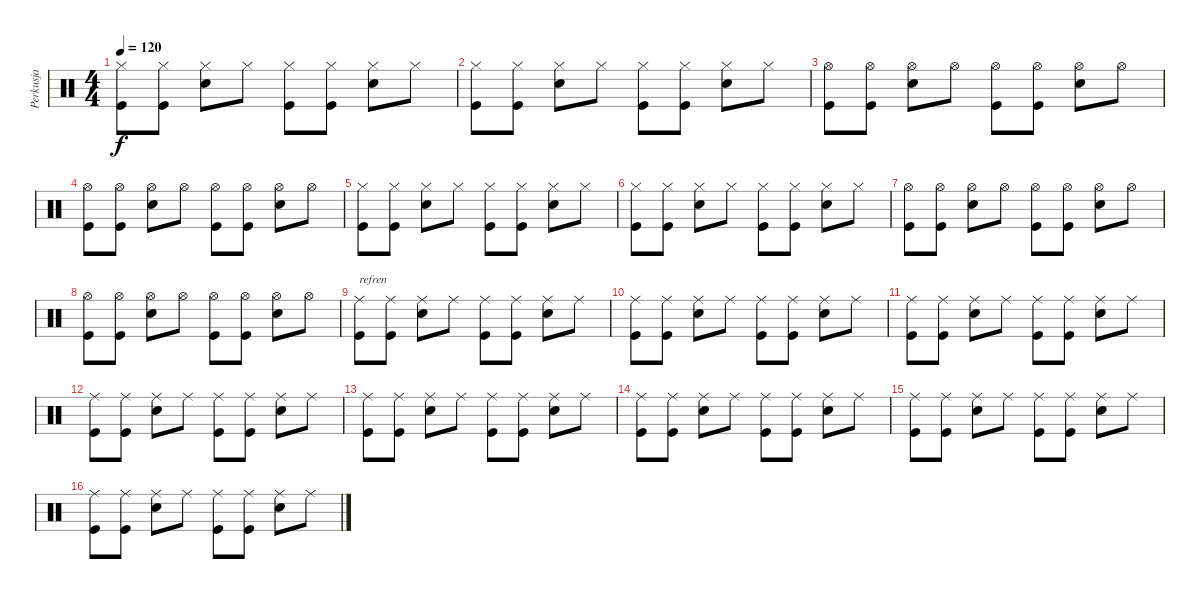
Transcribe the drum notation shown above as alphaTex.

\track ("Perkusja" "Perkusja") {instrument percussion}
\staff {score}
\articulation defaults
\ts (4 4)
\tempo 120
\clef neutral
\ks c
("Hi-Hat (closed)" "Kick (hit)").8{dy f} ("Hi-Hat (closed)" "Kick (hit)").8 ("Hi-Hat (closed)" "Electric Snare (hit)").8 "Hi-Hat (closed)".8 ("Hi-Hat (closed)" "Kick (hit)").8 ("Hi-Hat (closed)" "Kick (hit)").8 ("Hi-Hat (closed)" "Electric Snare (hit)").8 "Hi-Hat (closed)".8 |
("Hi-Hat (closed)" "Kick (hit)").8 ("Hi-Hat (closed)" "Kick (hit)").8 ("Hi-Hat (closed)" "Electric Snare (hit)").8 "Hi-Hat (closed)".8 ("Hi-Hat (closed)" "Kick (hit)").8 ("Hi-Hat (closed)" "Kick (hit)").8 ("Hi-Hat (closed)" "Electric Snare (hit)").8 "Hi-Hat (closed)".8 |
("Hi-Hat (open)" "Kick (hit)").8 ("Hi-Hat (open)" "Kick (hit)").8 ("Hi-Hat (open)" "Electric Snare (hit)").8 "Hi-Hat (open)".8 ("Hi-Hat (open)" "Kick (hit)").8 ("Hi-Hat (open)" "Kick (hit)").8 ("Hi-Hat (open)" "Electric Snare (hit)").8 "Hi-Hat (open)".8 |
("Hi-Hat (open)" "Kick (hit)").8 ("Hi-Hat (open)" "Kick (hit)").8 ("Hi-Hat (open)" "Electric Snare (hit)").8 "Hi-Hat (open)".8 ("Hi-Hat (open)" "Kick (hit)").8 ("Hi-Hat (open)" "Kick (hit)").8 ("Hi-Hat (open)" "Electric Snare (hit)").8 "Hi-Hat (open)".8 |
("Hi-Hat (closed)" "Kick (hit)").8 ("Hi-Hat (closed)" "Kick (hit)").8 ("Hi-Hat (closed)" "Electric Snare (hit)").8 "Hi-Hat (closed)".8 ("Hi-Hat (closed)" "Kick (hit)").8 ("Hi-Hat (closed)" "Kick (hit)").8 ("Hi-Hat (closed)" "Electric Snare (hit)").8 "Hi-Hat (closed)".8 |
("Hi-Hat (closed)" "Kick (hit)").8 ("Hi-Hat (closed)" "Kick (hit)").8 ("Hi-Hat (closed)" "Electric Snare (hit)").8 "Hi-Hat (closed)".8 ("Hi-Hat (closed)" "Kick (hit)").8 ("Hi-Hat (closed)" "Kick (hit)").8 ("Hi-Hat (closed)" "Electric Snare (hit)").8 "Hi-Hat (closed)".8 |
("Hi-Hat (open)" "Kick (hit)").8 ("Hi-Hat (open)" "Kick (hit)").8 ("Hi-Hat (open)" "Electric Snare (hit)").8 "Hi-Hat (open)".8 ("Hi-Hat (open)" "Kick (hit)").8 ("Hi-Hat (open)" "Kick (hit)").8 ("Hi-Hat (open)" "Electric Snare (hit)").8 "Hi-Hat (open)".8 |
("Hi-Hat (open)" "Kick (hit)").8 ("Hi-Hat (open)" "Kick (hit)").8 ("Hi-Hat (open)" "Electric Snare (hit)").8 "Hi-Hat (open)".8 ("Hi-Hat (open)" "Kick (hit)").8 ("Hi-Hat (open)" "Kick (hit)").8 ("Hi-Hat (open)" "Electric Snare (hit)").8 "Hi-Hat (open)".8 |
("Ride (middle)" "Kick (hit)").8{txt "refren"} ("Ride (middle)" "Kick (hit)").8 ("Ride (middle)" "Electric Snare (hit)").8 "Ride (middle)".8 ("Ride (middle)" "Kick (hit)").8 ("Ride (middle)" "Kick (hit)").8 ("Ride (middle)" "Electric Snare (hit)").8 "Ride (middle)".8 |
("Ride (middle)" "Kick (hit)").8 ("Ride (middle)" "Kick (hit)").8 ("Ride (middle)" "Electric Snare (hit)").8 "Ride (middle)".8 ("Ride (middle)" "Kick (hit)").8 ("Ride (middle)" "Kick (hit)").8 ("Ride (middle)" "Electric Snare (hit)").8 "Ride (middle)".8 |
("Ride (middle)" "Kick (hit)").8 ("Ride (middle)" "Kick (hit)").8 ("Ride (middle)" "Electric Snare (hit)").8 "Ride (middle)".8 ("Ride (middle)" "Kick (hit)").8 ("Ride (middle)" "Kick (hit)").8 ("Ride (middle)" "Electric Snare (hit)").8 "Ride (middle)".8 |
("Ride (middle)" "Kick (hit)").8 ("Ride (middle)" "Kick (hit)").8 ("Ride (middle)" "Electric Snare (hit)").8 "Ride (middle)".8 ("Ride (middle)" "Kick (hit)").8 ("Ride (middle)" "Kick (hit)").8 ("Ride (middle)" "Electric Snare (hit)").8 "Ride (middle)".8 |
("Ride (middle)" "Kick (hit)").8 ("Ride (middle)" "Kick (hit)").8 ("Ride (middle)" "Electric Snare (hit)").8 "Ride (middle)".8 ("Ride (middle)" "Kick (hit)").8 ("Ride (middle)" "Kick (hit)").8 ("Ride (middle)" "Electric Snare (hit)").8 "Ride (middle)".8 |
("Ride (middle)" "Kick (hit)").8 ("Ride (middle)" "Kick (hit)").8 ("Ride (middle)" "Electric Snare (hit)").8 "Ride (middle)".8 ("Ride (middle)" "Kick (hit)").8 ("Ride (middle)" "Kick (hit)").8 ("Ride (middle)" "Electric Snare (hit)").8 "Ride (middle)".8 |
("Ride (middle)" "Kick (hit)").8 ("Ride (middle)" "Kick (hit)").8 ("Ride (middle)" "Electric Snare (hit)").8 "Ride (middle)".8 ("Ride (middle)" "Kick (hit)").8 ("Ride (middle)" "Kick (hit)").8 ("Ride (middle)" "Electric Snare (hit)").8 "Ride (middle)".8 |
("Ride (middle)" "Kick (hit)").8 ("Ride (middle)" "Kick (hit)").8 ("Ride (middle)" "Electric Snare (hit)").8 "Ride (middle)".8 ("Ride (middle)" "Kick (hit)").8 ("Ride (middle)" "Kick (hit)").8 ("Ride (middle)" "Electric Snare (hit)").8 "Ride (middle)".8
